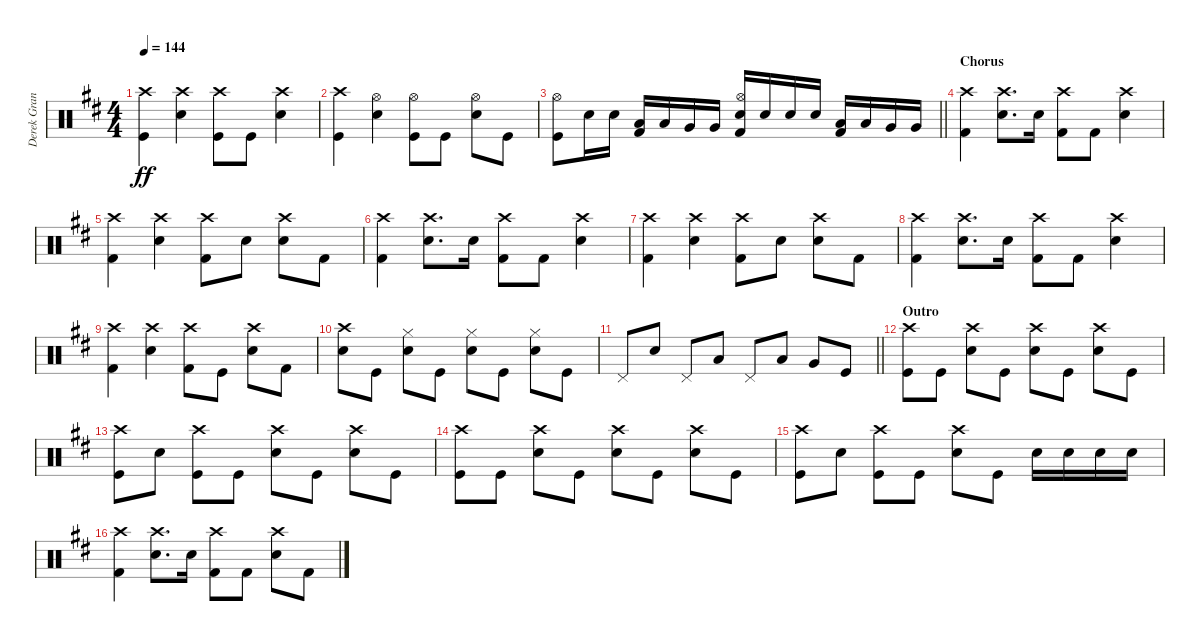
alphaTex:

\track ("Derek Grant - Drums" "Derek Gran") {instrument percussion}
\staff {score}
\articulation defaults
\ts (4 4)
\tempo 144
\clef neutral
\ks d
("Crash high (hit)" "Kick (hit)").4{dy ff} ("Snare (hit) 2" "Crash high (hit)").4 ("Kick (hit)" "Crash high (hit)").8 "Kick (hit)".8 ("Crash high (hit)" "Snare (hit) 2").4 |
("Crash high (hit)" "Kick (hit)").4 ("Snare (hit) 2" "Hi-Hat (open)").4 ("Kick (hit)" "Hi-Hat (open)").8 "Kick (hit)".8 ("Hi-Hat (open)" "Snare (hit) 2").8 "Kick (hit)".8 |
\barLineRight lightlight
("Hi-Hat (open)" "Kick (hit)").8 "Snare (hit) 2".16 "Snare (hit) 2".16 ("Low Tom (hit)" "Kick (hit) 2").16 "Low Tom (hit)".16 "Very Low Tom (hit)".16 "Very Low Tom (hit)".16 ("Snare (hit) 2" "Kick (hit) 2" "Hi-Hat (open)").16 "Snare (hit) 2".16 "Snare (hit) 2".16 "Snare (hit) 2".16 ("Low Tom (hit)" "Kick (hit) 2").16 "Low Tom (hit)".16 "Very Low Tom (hit)".16 "Very Low Tom (hit)".16 |
\section ("" "Chorus")
("Crash high (hit)" "Kick (hit) 2").4 ("Snare (hit) 2" "Crash high (hit)").8{d} "Snare (hit) 2".16 ("Kick (hit) 2" "Crash high (hit)").8 "Kick (hit) 2".8 ("Snare (hit) 2" "Crash high (hit)").4 |
("Kick (hit) 2" "Crash high (hit)").4 ("Snare (hit) 2" "Crash high (hit)").4 ("Kick (hit) 2" "Crash high (hit)").8 "Snare (hit) 2".8 ("Snare (hit) 2" "Crash high (hit)").8 "Kick (hit) 2".8 |
("Crash high (hit)" "Kick (hit) 2").4 ("Snare (hit) 2" "Crash high (hit)").8{d} "Snare (hit) 2".16 ("Kick (hit) 2" "Crash high (hit)").8 "Kick (hit) 2".8 ("Snare (hit) 2" "Crash high (hit)").4 |
("Kick (hit) 2" "Crash high (hit)").4 ("Snare (hit) 2" "Crash high (hit)").4 ("Kick (hit) 2" "Crash high (hit)").8 "Snare (hit) 2".8 ("Snare (hit) 2" "Crash high (hit)").8 "Kick (hit) 2".8 |
("Crash high (hit)" "Kick (hit) 2").4 ("Snare (hit) 2" "Crash high (hit)").8{d} "Snare (hit) 2".16 ("Kick (hit) 2" "Crash high (hit)").8 "Kick (hit) 2".8 ("Snare (hit) 2" "Crash high (hit)").4 |
("Kick (hit) 2" "Crash high (hit)").4 ("Snare (hit) 2" "Crash high (hit)").4 ("Kick (hit) 2" "Crash high (hit)").8 "Kick (hit)".8 ("Snare (hit) 2" "Crash high (hit)").8 "Kick (hit) 2".8 |
("Crash high (hit)" "Snare (hit) 2").8 "Kick (hit)".8 ("Hi-Hat (closed)" "Snare (hit) 2").8 "Kick (hit)".8 ("Hi-Hat (closed)" "Snare (hit) 2").8 "Kick (hit)".8 ("Hi-Hat (closed)" "Snare (hit) 2").8 "Kick (hit)".8 |
\barLineRight lightlight "Pedal Hi-Hat (hit)".8 "Snare (hit) 2".8 "Pedal Hi-Hat (hit)".8 "Low Tom (hit)".8 "Pedal Hi-Hat (hit)".8 "Low Tom (hit)".8 "Very Low Tom (hit)".8 "Kick (hit)".8
|
\section ("" "Outro")
("Crash high (hit)" "Kick (hit)").8 "Kick (hit)".8 ("Snare (hit) 2" "Crash high (hit)").8 "Kick (hit)".8 ("Snare (hit) 2" "Crash high (hit)").8 "Kick (hit)".8 ("Snare (hit) 2" "Crash high (hit)").8 "Kick (hit)".8 |
("Kick (hit)" "Crash high (hit)").8 "Snare (hit) 2".8 ("Kick (hit)" "Crash high (hit)").8 "Kick (hit)".8 ("Snare (hit) 2" "Crash high (hit)").8 "Kick (hit)".8 ("Snare (hit) 2" "Crash high (hit)").8 "Kick (hit)".8 |
("Crash high (hit)" "Kick (hit)").8 "Kick (hit)".8 ("Snare (hit) 2" "Crash high (hit)").8 "Kick (hit)".8 ("Snare (hit) 2" "Crash high (hit)").8 "Kick (hit)".8 ("Snare (hit) 2" "Crash high (hit)").8 "Kick (hit)".8 |
("Kick (hit)" "Crash high (hit)").8 "Snare (hit) 2".8 ("Kick (hit)" "Crash high (hit)").8 "Kick (hit)".8 ("Snare (hit) 2" "Crash high (hit)").8 "Kick (hit)".8 "Snare (hit) 2".16 "Snare (hit) 2".16 "Snare (hit) 2".16 "Snare (hit) 2".16 |
("Crash high (hit)" "Kick (hit) 2").4 ("Crash high (hit)" "Snare (hit) 2").8{d} "Snare (hit) 2".16 ("Crash high (hit)" "Kick (hit) 2").8 "Kick (hit) 2".8 ("Snare (hit) 2" "Crash high (hit)").8 "Kick (hit) 2".8
